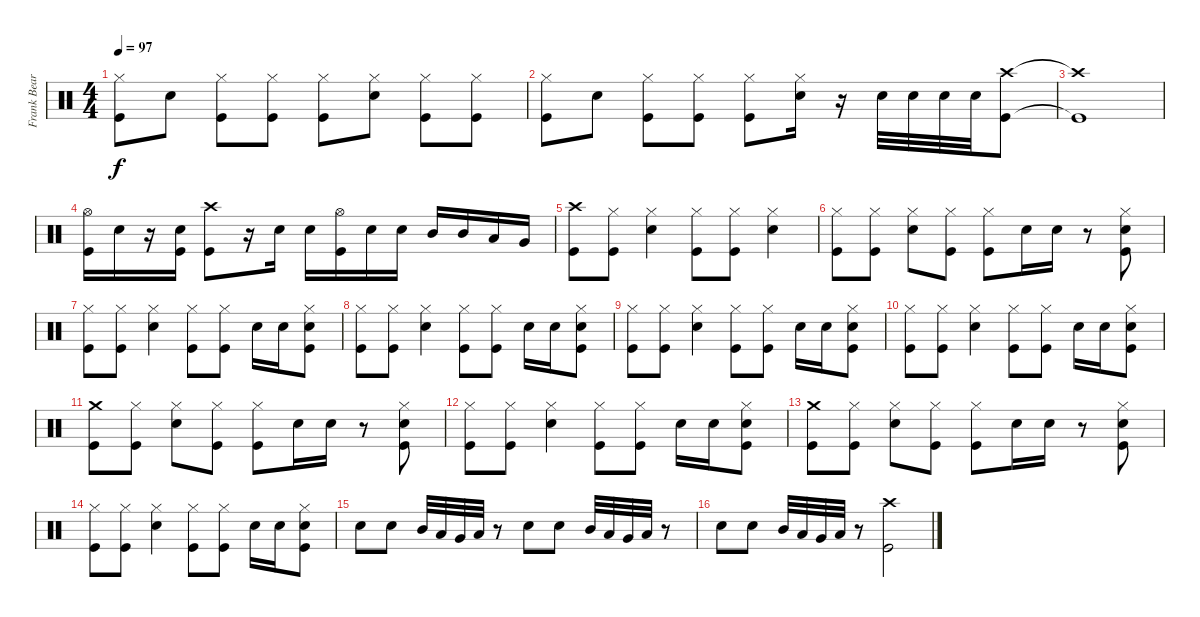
\track ("Frank Beard Drums" "Frank Bear") {instrument percussion}
\staff {score}
\articulation defaults
\ts (4 4)
\tempo 97
\clef neutral
\ks c
("Hi-Hat (closed)" "Kick (hit)").8{dy f} "Snare (hit) 2".8 ("Hi-Hat (closed)" "Kick (hit)").8 ("Hi-Hat (closed)" "Kick (hit)").8 ("Hi-Hat (closed)" "Kick (hit)").8 ("Hi-Hat (closed)" "Snare (hit) 2").8 ("Hi-Hat (closed)" "Kick (hit)").8 ("Hi-Hat (closed)" "Kick (hit)").8 |
("Hi-Hat (closed)" "Kick (hit)").8 "Snare (hit) 2".8 ("Hi-Hat (closed)" "Kick (hit)").8 ("Hi-Hat (closed)" "Kick (hit)").8 ("Hi-Hat (closed)" "Kick (hit)").8 ("Hi-Hat (closed)" "Snare (hit) 2").16 r.16 "Snare (hit) 2".32 "Snare (hit) 2".32 "Snare (hit) 2".32 "Snare (hit) 2".32 ("Crash high (hit)" "Kick (hit)").8 |
("Crash high (hit)"{t} "Kick (hit)"{t}).1 |
("Hi-Hat (open)" "Kick (hit)").16 "Snare (hit) 2".16 r.16 ("Snare (hit) 2" "Kick (hit)").16 ("Crash high (hit)" "Kick (hit)").8 r.16 "Snare (hit) 2".16 "Snare (hit) 2".16 ("Hi-Hat (open)" "Kick (hit)").16 "Snare (hit) 2".16 "Snare (hit) 2".16 "Mid Tom (hit)".16 "Mid Tom (hit)".16 "Low Tom (hit)".16 "Very Low Tom (hit)".16 |
("Crash high (hit)" "Kick (hit)").8 ("Hi-Hat (closed)" "Kick (hit)").8 ("Hi-Hat (closed)" "Snare (hit) 2").4 ("Hi-Hat (closed)" "Kick (hit)").8 ("Hi-Hat (closed)" "Kick (hit)").8 ("Hi-Hat (closed)" "Snare (hit) 2").4 |
("Hi-Hat (closed)" "Kick (hit)").8 ("Hi-Hat (closed)" "Kick (hit)").8 ("Hi-Hat (closed)" "Snare (hit) 2").8 ("Hi-Hat (closed)" "Kick (hit)").8 ("Hi-Hat (closed)" "Kick (hit)").8 "Snare (hit) 2".16 "Snare (hit) 2".16 r.8 ("Hi-Hat (closed)" "Snare (hit) 2" "Kick (hit)").8 |
("Hi-Hat (closed)" "Kick (hit)").8 ("Hi-Hat (closed)" "Kick (hit)").8 ("Hi-Hat (closed)" "Snare (hit) 2").4 ("Hi-Hat (closed)" "Kick (hit)").8 ("Hi-Hat (closed)" "Kick (hit)").8 "Snare (hit) 2".16 "Snare (hit) 2".16 ("Hi-Hat (closed)" "Snare (hit) 2" "Kick (hit)").8 |
("Hi-Hat (closed)" "Kick (hit)").8 ("Hi-Hat (closed)" "Kick (hit)").8 ("Hi-Hat (closed)" "Snare (hit) 2").4 ("Hi-Hat (closed)" "Kick (hit)").8 ("Hi-Hat (closed)" "Kick (hit)").8 "Snare (hit) 2".16 "Snare (hit) 2".16 ("Hi-Hat (closed)" "Snare (hit) 2" "Kick (hit)").8 |
("Hi-Hat (closed)" "Kick (hit)").8 ("Hi-Hat (closed)" "Kick (hit)").8 ("Hi-Hat (closed)" "Snare (hit) 2").4 ("Hi-Hat (closed)" "Kick (hit)").8 ("Hi-Hat (closed)" "Kick (hit)").8 "Snare (hit) 2".16 "Snare (hit) 2".16 ("Hi-Hat (closed)" "Snare (hit) 2" "Kick (hit)").8 |
("Hi-Hat (closed)" "Kick (hit)").8 ("Hi-Hat (closed)" "Kick (hit)").8 ("Hi-Hat (closed)" "Snare (hit) 2").4 ("Hi-Hat (closed)" "Kick (hit)").8 ("Hi-Hat (closed)" "Kick (hit)").8 "Snare (hit) 2".16 "Snare (hit) 2".16 ("Hi-Hat (closed)" "Snare (hit) 2" "Kick (hit)").8 |
("Crash medium (hit)" "Kick (hit)").8 ("Hi-Hat (closed)" "Kick (hit)").8 ("Hi-Hat (closed)" "Snare (hit) 2").8 ("Hi-Hat (closed)" "Kick (hit)").8 ("Hi-Hat (closed)" "Kick (hit)").8 "Snare (hit) 2".16 "Snare (hit) 2".16 r.8 ("Hi-Hat (closed)" "Snare (hit) 2" "Kick (hit)").8 |
("Hi-Hat (closed)" "Kick (hit)").8 ("Hi-Hat (closed)" "Kick (hit)").8 ("Hi-Hat (closed)" "Snare (hit) 2").4 ("Hi-Hat (closed)" "Kick (hit)").8 ("Hi-Hat (closed)" "Kick (hit)").8 "Snare (hit) 2".16 "Snare (hit) 2".16 ("Hi-Hat (closed)" "Snare (hit) 2" "Kick (hit)").8 |
("Crash medium (hit)" "Kick (hit)").8 ("Hi-Hat (closed)" "Kick (hit)").8 ("Hi-Hat (closed)" "Snare (hit) 2").8 ("Hi-Hat (closed)" "Kick (hit)").8 ("Hi-Hat (closed)" "Kick (hit)").8 "Snare (hit) 2".16 "Snare (hit) 2".16 r.8 ("Hi-Hat (closed)" "Snare (hit) 2" "Kick (hit)").8 |
("Hi-Hat (closed)" "Kick (hit)").8 ("Hi-Hat (closed)" "Kick (hit)").8 ("Hi-Hat (closed)" "Snare (hit) 2").4 ("Hi-Hat (closed)" "Kick (hit)").8 ("Hi-Hat (closed)" "Kick (hit)").8 "Snare (hit) 2".16 "Snare (hit) 2".16 ("Hi-Hat (closed)" "Snare (hit) 2" "Kick (hit)").8 |
"Snare (hit) 2".8 "Snare (hit) 2".8 "Mid Tom (hit)".32 "Low Tom (hit)".32 "Very Low Tom (hit)".32 "Low Floor Tom (hit)".32 r.8 "Snare (hit) 2".8 "Snare (hit) 2".8 "Mid Tom (hit)".32 "Low Tom (hit)".32 "Very Low Tom (hit)".32 "Low Floor Tom (hit)".32 r.8 |
"Snare (hit) 2".8 "Snare (hit) 2".8 "Mid Tom (hit)".32 "Low Tom (hit)".32 "Very Low Tom (hit)".32 "Low Floor Tom (hit)".32 r.8 ("Crash high (hit)" "Kick (hit)").2
